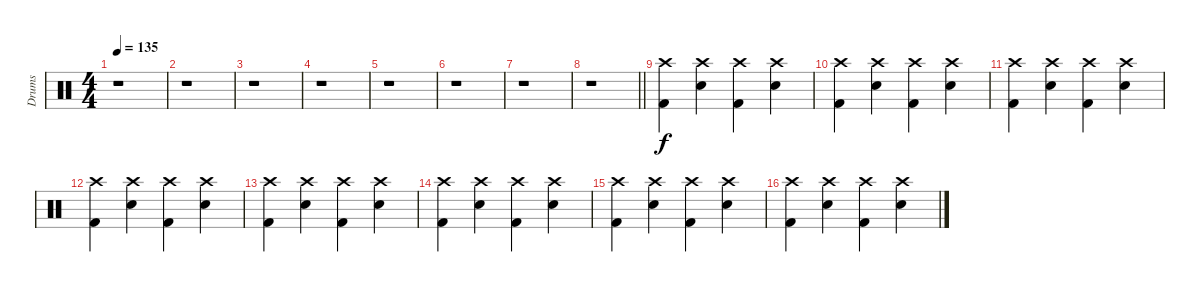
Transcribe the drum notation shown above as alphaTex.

\track ("Drums" "Drums") {instrument percussion}
\staff {score}
\articulation defaults
\ts (4 4)
\tempo 135
\clef neutral
\ks c
r.1{dy f} |
r.1 |
r.1 |
r.1 |
r.1 |
r.1 |
r.1 |
\barLineRight lightlight
r.1 |
("Crash high (hit)" "Kick (hit) 2").4 ("Crash high (hit)" "Electric Snare (hit)").4 ("Crash high (hit)" "Kick (hit) 2").4 ("Crash high (hit)" "Electric Snare (hit)").4 |
("Crash high (hit)" "Kick (hit) 2").4 ("Crash high (hit)" "Electric Snare (hit)").4 ("Crash high (hit)" "Kick (hit) 2").4 ("Crash high (hit)" "Electric Snare (hit)").4 |
("Crash high (hit)" "Kick (hit) 2").4 ("Crash high (hit)" "Electric Snare (hit)").4 ("Crash high (hit)" "Kick (hit) 2").4 ("Crash high (hit)" "Electric Snare (hit)").4 |
("Crash high (hit)" "Kick (hit) 2").4 ("Crash high (hit)" "Electric Snare (hit)").4 ("Crash high (hit)" "Kick (hit) 2").4 ("Crash high (hit)" "Electric Snare (hit)").4 |
("Crash high (hit)" "Kick (hit) 2").4 ("Crash high (hit)" "Electric Snare (hit)").4 ("Crash high (hit)" "Kick (hit) 2").4 ("Crash high (hit)" "Electric Snare (hit)").4 |
("Crash high (hit)" "Kick (hit) 2").4 ("Crash high (hit)" "Electric Snare (hit)").4 ("Crash high (hit)" "Kick (hit) 2").4 ("Crash high (hit)" "Electric Snare (hit)").4 |
("Crash high (hit)" "Kick (hit) 2").4 ("Crash high (hit)" "Electric Snare (hit)").4 ("Crash high (hit)" "Kick (hit) 2").4 ("Crash high (hit)" "Electric Snare (hit)").4 |
("Crash high (hit)" "Kick (hit) 2").4 ("Crash high (hit)" "Electric Snare (hit)").4 ("Crash high (hit)" "Kick (hit) 2").4 ("Crash high (hit)" "Electric Snare (hit)").4
